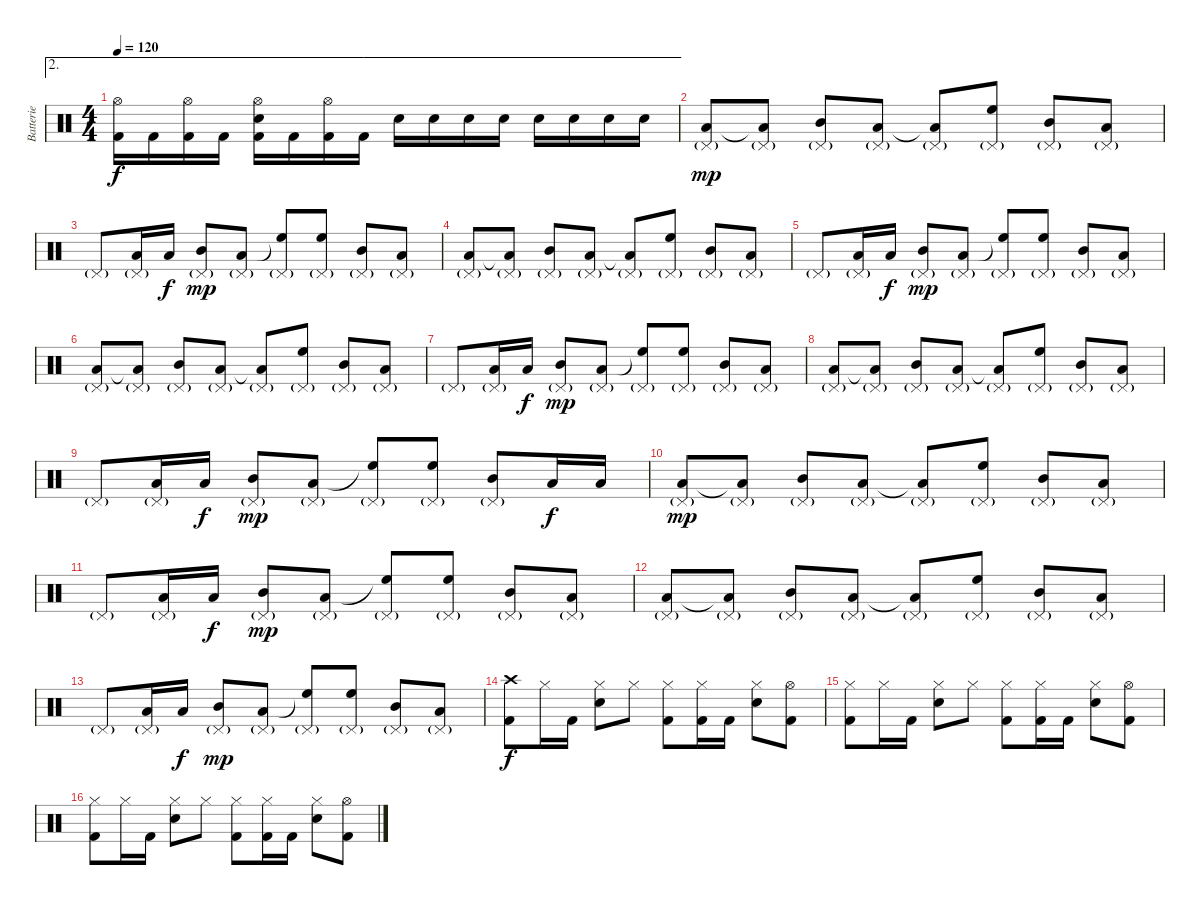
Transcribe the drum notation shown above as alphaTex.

\track ("Batterie" "Batterie") {instrument percussion}
\staff {score}
\articulation defaults
\ae 2
\ts (4 4)
\tempo 120
\clef neutral
\ks c
("Hi-Hat (open)" "Kick (hit) 2").16{dy f} "Kick (hit) 2".16 ("Hi-Hat (open)" "Kick (hit) 2").16 "Kick (hit) 2".16 ("Hi-Hat (open)" "Snare (hit) 2" "Kick (hit) 2").16 "Kick (hit) 2".16 ("Hi-Hat (open)" "Kick (hit) 2").16 "Kick (hit) 2".16 "Snare (hit) 2".16 "Snare (hit) 2".16 "Snare (hit) 2".16 "Snare (hit) 2".16 "Snare (hit) 2".16 "Snare (hit) 2".16 "Snare (hit) 2".16 "Snare (hit) 2".16 |
("Pedal Hi-Hat (hit)"{g} "Low Tom (hit)").8{dy mp} ("Pedal Hi-Hat (hit)"{g} "Low Tom (hit)"{t}).8 ("Pedal Hi-Hat (hit)"{g} "Mid Tom (hit)").8 ("Pedal Hi-Hat (hit)"{g} "Low Tom (hit)").8 ("Pedal Hi-Hat (hit)"{g} "Low Tom (hit)"{t}).8 ("Pedal Hi-Hat (hit)"{g} "High Floor Tom (hit)").8 ("Pedal Hi-Hat (hit)"{g} "Mid Tom (hit)").8 ("Pedal Hi-Hat (hit)"{g} "Low Tom (hit)").8 |
"Pedal Hi-Hat (hit)"{g}.8 ("Pedal Hi-Hat (hit)"{g} "Low Tom (hit)").16 "Low Tom (hit)".16{dy f} ("Pedal Hi-Hat (hit)"{g} "Mid Tom (hit)").8{dy mp} ("Pedal Hi-Hat (hit)"{g} "Low Tom (hit)").8 ("Pedal Hi-Hat (hit)"{g} "High Floor Tom (hit)"{t}).8 ("Pedal Hi-Hat (hit)"{g} "High Floor Tom (hit)").8 ("Pedal Hi-Hat (hit)"{g} "Mid Tom (hit)").8 ("Pedal Hi-Hat (hit)"{g} "Low Tom (hit)").8 |
("Pedal Hi-Hat (hit)"{g} "Low Tom (hit)").8 ("Pedal Hi-Hat (hit)"{g} "Low Tom (hit)"{t}).8 ("Pedal Hi-Hat (hit)"{g} "Mid Tom (hit)").8 ("Pedal Hi-Hat (hit)"{g} "Low Tom (hit)").8 ("Pedal Hi-Hat (hit)"{g} "Low Tom (hit)"{t}).8 ("Pedal Hi-Hat (hit)"{g} "High Floor Tom (hit)").8 ("Pedal Hi-Hat (hit)"{g} "Mid Tom (hit)").8 ("Pedal Hi-Hat (hit)"{g} "Low Tom (hit)").8 |
"Pedal Hi-Hat (hit)"{g}.8 ("Pedal Hi-Hat (hit)"{g} "Low Tom (hit)").16 "Low Tom (hit)".16{dy f} ("Pedal Hi-Hat (hit)"{g} "Mid Tom (hit)").8{dy mp} ("Pedal Hi-Hat (hit)"{g} "Low Tom (hit)").8 ("Pedal Hi-Hat (hit)"{g} "High Floor Tom (hit)"{t}).8 ("Pedal Hi-Hat (hit)"{g} "High Floor Tom (hit)").8 ("Pedal Hi-Hat (hit)"{g} "Mid Tom (hit)").8 ("Pedal Hi-Hat (hit)"{g} "Low Tom (hit)").8 |
("Pedal Hi-Hat (hit)"{g} "Low Tom (hit)").8 ("Pedal Hi-Hat (hit)"{g} "Low Tom (hit)"{t}).8 ("Pedal Hi-Hat (hit)"{g} "Mid Tom (hit)").8 ("Pedal Hi-Hat (hit)"{g} "Low Tom (hit)").8 ("Pedal Hi-Hat (hit)"{g} "Low Tom (hit)"{t}).8 ("Pedal Hi-Hat (hit)"{g} "High Floor Tom (hit)").8 ("Pedal Hi-Hat (hit)"{g} "Mid Tom (hit)").8 ("Pedal Hi-Hat (hit)"{g} "Low Tom (hit)").8 |
"Pedal Hi-Hat (hit)"{g}.8 ("Pedal Hi-Hat (hit)"{g} "Low Tom (hit)").16 "Low Tom (hit)".16{dy f} ("Pedal Hi-Hat (hit)"{g} "Mid Tom (hit)").8{dy mp} ("Pedal Hi-Hat (hit)"{g} "Low Tom (hit)").8 ("Pedal Hi-Hat (hit)"{g} "High Floor Tom (hit)"{t}).8 ("Pedal Hi-Hat (hit)"{g} "High Floor Tom (hit)").8 ("Pedal Hi-Hat (hit)"{g} "Mid Tom (hit)").8 ("Pedal Hi-Hat (hit)"{g} "Low Tom (hit)").8 |
("Pedal Hi-Hat (hit)"{g} "Low Tom (hit)").8 ("Pedal Hi-Hat (hit)"{g} "Low Tom (hit)"{t}).8 ("Pedal Hi-Hat (hit)"{g} "Mid Tom (hit)").8 ("Pedal Hi-Hat (hit)"{g} "Low Tom (hit)").8 ("Pedal Hi-Hat (hit)"{g} "Low Tom (hit)"{t}).8 ("Pedal Hi-Hat (hit)"{g} "High Floor Tom (hit)").8 ("Pedal Hi-Hat (hit)"{g} "Mid Tom (hit)").8 ("Pedal Hi-Hat (hit)"{g} "Low Tom (hit)").8 |
"Pedal Hi-Hat (hit)"{g}.8 ("Pedal Hi-Hat (hit)"{g} "Low Tom (hit)").16 "Low Tom (hit)".16{dy f} ("Pedal Hi-Hat (hit)"{g} "Mid Tom (hit)").8{dy mp} ("Pedal Hi-Hat (hit)"{g} "Low Tom (hit)").8 ("Pedal Hi-Hat (hit)"{g} "High Floor Tom (hit)"{t}).8 ("Pedal Hi-Hat (hit)"{g} "High Floor Tom (hit)").8 ("Pedal Hi-Hat (hit)"{g} "Mid Tom (hit)").8 "Low Tom (hit)".16{dy f} "Low Tom (hit)".16 |
("Pedal Hi-Hat (hit)"{g} "Low Tom (hit)").8{dy mp volume 7} ("Pedal Hi-Hat (hit)"{g} "Low Tom (hit)"{t}).8 ("Pedal Hi-Hat (hit)"{g} "Mid Tom (hit)").8 ("Pedal Hi-Hat (hit)"{g} "Low Tom (hit)").8 ("Pedal Hi-Hat (hit)"{g} "Low Tom (hit)"{t}).8 ("Pedal Hi-Hat (hit)"{g} "High Floor Tom (hit)").8 ("Pedal Hi-Hat (hit)"{g} "Mid Tom (hit)").8 ("Pedal Hi-Hat (hit)"{g} "Low Tom (hit)").8 |
"Pedal Hi-Hat (hit)"{g}.8 ("Pedal Hi-Hat (hit)"{g} "Low Tom (hit)").16 "Low Tom (hit)".16{dy f} ("Pedal Hi-Hat (hit)"{g} "Mid Tom (hit)").8{dy mp} ("Pedal Hi-Hat (hit)"{g} "Low Tom (hit)").8 ("Pedal Hi-Hat (hit)"{g} "High Floor Tom (hit)"{t}).8 ("Pedal Hi-Hat (hit)"{g} "High Floor Tom (hit)").8 ("Pedal Hi-Hat (hit)"{g} "Mid Tom (hit)").8 ("Pedal Hi-Hat (hit)"{g} "Low Tom (hit)").8 |
("Pedal Hi-Hat (hit)"{g} "Low Tom (hit)").8 ("Pedal Hi-Hat (hit)"{g} "Low Tom (hit)"{t}).8 ("Pedal Hi-Hat (hit)"{g} "Mid Tom (hit)").8 ("Pedal Hi-Hat (hit)"{g} "Low Tom (hit)").8 ("Pedal Hi-Hat (hit)"{g} "Low Tom (hit)"{t}).8 ("Pedal Hi-Hat (hit)"{g} "High Floor Tom (hit)").8 ("Pedal Hi-Hat (hit)"{g} "Mid Tom (hit)").8 ("Pedal Hi-Hat (hit)"{g} "Low Tom (hit)").8 |
"Pedal Hi-Hat (hit)"{g}.8 ("Pedal Hi-Hat (hit)"{g} "Low Tom (hit)").16 "Low Tom (hit)".16{dy f} ("Pedal Hi-Hat (hit)"{g} "Mid Tom (hit)").8{dy mp} ("Pedal Hi-Hat (hit)"{g} "Low Tom (hit)").8 ("Pedal Hi-Hat (hit)"{g} "High Floor Tom (hit)"{t}).8 ("Pedal Hi-Hat (hit)"{g} "High Floor Tom (hit)").8 ("Pedal Hi-Hat (hit)"{g} "Mid Tom (hit)").8 ("Pedal Hi-Hat (hit)"{g} "Low Tom (hit)").8 |
("Crash high (hit)" "Kick (hit) 2").8{dy f volume 14} "Hi-Hat (closed)".16 "Kick (hit) 2".16 ("Hi-Hat (closed)" "Snare (hit) 2").8 "Hi-Hat (closed)".8 ("Hi-Hat (closed)" "Kick (hit) 2").8 ("Hi-Hat (closed)" "Kick (hit) 2").16 "Kick (hit) 2".16 ("Hi-Hat (closed)" "Snare (hit) 2").8 ("Hi-Hat (open)" "Kick (hit) 2").8 |
("Hi-Hat (closed)" "Kick (hit) 2").8 "Hi-Hat (closed)".16 "Kick (hit) 2".16 ("Hi-Hat (closed)" "Snare (hit) 2").8 "Hi-Hat (closed)".8 ("Hi-Hat (closed)" "Kick (hit) 2").8 ("Hi-Hat (closed)" "Kick (hit) 2").16 "Kick (hit) 2".16 ("Hi-Hat (closed)" "Snare (hit) 2").8 ("Hi-Hat (open)" "Kick (hit) 2").8 |
("Hi-Hat (closed)" "Kick (hit) 2").8 "Hi-Hat (closed)".16 "Kick (hit) 2".16 ("Hi-Hat (closed)" "Snare (hit) 2").8 "Hi-Hat (closed)".8 ("Hi-Hat (closed)" "Kick (hit) 2").8 ("Hi-Hat (closed)" "Kick (hit) 2").16 "Kick (hit) 2".16 ("Hi-Hat (closed)" "Snare (hit) 2").8 ("Hi-Hat (open)" "Kick (hit) 2").8
